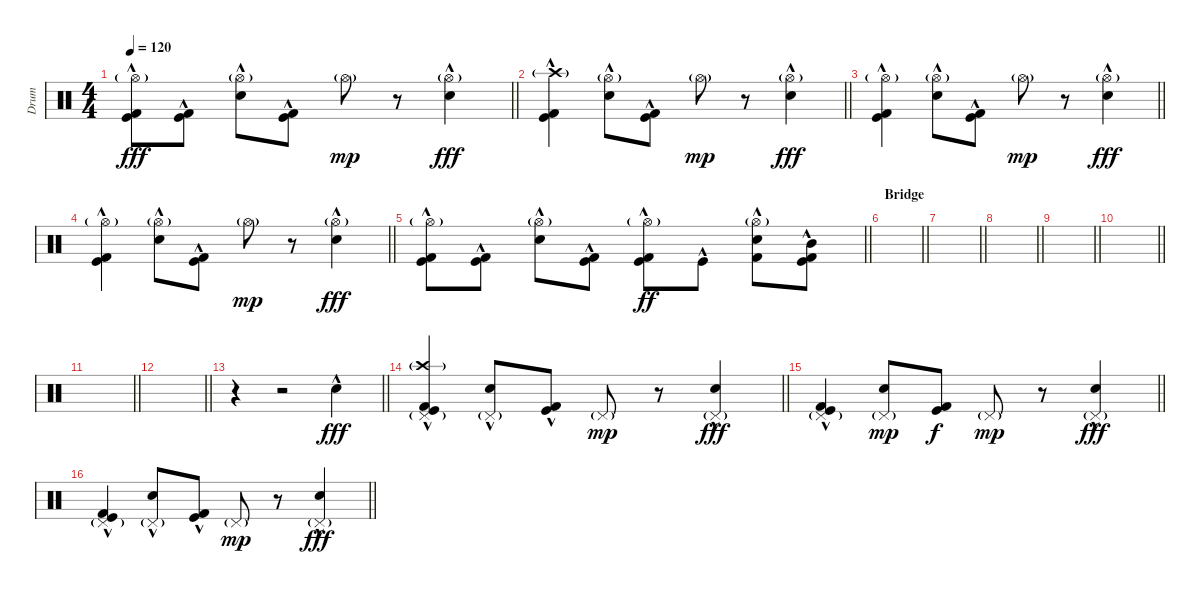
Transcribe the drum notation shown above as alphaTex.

\track ("Drum" "Drum") {instrument percussion}
\staff {score}
\articulation defaults
\ts (4 4)
\tempo 120
\clef neutral
\barLineRight lightlight
\ks c
("Hi-Hat (open)"{g} "Kick (hit) 2"{hac} "Kick (hit)"{hac}).8{dy fff} ("Kick (hit) 2"{hac} "Kick (hit)"{hac}).8 ("Hi-Hat (open)"{g} "Snare (hit) 2"{hac}).8 ("Kick (hit) 2"{hac} "Kick (hit)"{hac}).8 "Hi-Hat (open)"{g}.8{dy mp} r.8 ("Hi-Hat (open)"{g} "Snare (hit) 2"{hac}).4{dy fff} |
\barLineRight lightlight
("Crash high (hit)"{g} "Kick (hit) 2"{hac} "Kick (hit)"{hac}).4 ("Hi-Hat (open)"{g} "Snare (hit) 2"{hac}).8 ("Kick (hit) 2"{hac} "Kick (hit)"{hac}).8 "Hi-Hat (open)"{g}.8{dy mp} r.8 ("Hi-Hat (open)"{g} "Snare (hit) 2"{hac}).4{dy fff} |
\barLineRight lightlight
("Hi-Hat (open)"{g} "Kick (hit) 2"{hac} "Kick (hit)"{hac}).4 ("Hi-Hat (open)"{g} "Snare (hit) 2"{hac}).8 ("Kick (hit) 2"{hac} "Kick (hit)"{hac}).8 "Hi-Hat (open)"{g}.8{dy mp} r.8 ("Hi-Hat (open)"{g} "Snare (hit) 2"{hac}).4{dy fff} |
\barLineRight lightlight
("Hi-Hat (open)"{g} "Kick (hit) 2"{hac} "Kick (hit)"{hac}).4 ("Hi-Hat (open)"{g} "Snare (hit) 2"{hac}).8 ("Kick (hit) 2"{hac} "Kick (hit)"{hac}).8 "Hi-Hat (open)"{g}.8{dy mp} r.8 ("Hi-Hat (open)"{g} "Snare (hit) 2"{hac}).4{dy fff} |
\barLineRight lightlight
("Hi-Hat (open)"{g} "Kick (hit) 2"{hac} "Kick (hit)"{hac}).8 ("Kick (hit) 2"{hac} "Kick (hit)"{hac}).8 ("Hi-Hat (open)"{g} "Snare (hit) 2"{hac}).8 ("Kick (hit) 2"{hac} "Kick (hit)"{hac}).8 ("Hi-Hat (open)"{g} "Kick (hit) 2"{hac} "Kick (hit)"{hac}).8{dy ff} "Kick (hit)"{hac}.8 ("Hi-Hat (open)"{g} "Snare (hit) 2"{hac} "Kick (hit) 2"{hac}).8 ("Mid Tom (hit)"{hac} "Kick (hit) 2"{hac} "Kick (hit)"{hac}).8 |
\section ("" "Bridge")
\barLineRight lightlight
|
\barLineRight lightlight
|
\barLineRight lightlight
|
\barLineRight lightlight
|
\barLineRight lightlight
|
\barLineRight lightlight
|
\barLineRight lightlight
|
\barLineRight lightlight
r.4 r.2 "Snare (hit) 2"{hac}.4{dy fff} |
\barLineRight lightlight
("Pedal Hi-Hat (hit)"{g} "Crash high (hit)"{g} "Kick (hit) 2"{hac} "Kick (hit)"{hac}).4 ("Pedal Hi-Hat (hit)"{g} "Snare (hit) 2"{hac}).8 ("Kick (hit) 2"{hac} "Kick (hit)"{hac}).8 "Pedal Hi-Hat (hit)"{g}.8{dy mp} r.8 ("Pedal Hi-Hat (hit)"{g} "Snare (hit) 2"{hac}).4{dy fff} |
\barLineRight lightlight
("Pedal Hi-Hat (hit)"{g} "Kick (hit) 2"{hac} "Kick (hit)"{hac}).4 ("Pedal Hi-Hat (hit)"{g} "Snare (hit) 2").8{dy mp} ("Kick (hit) 2" "Kick (hit)").8{dy f} "Pedal Hi-Hat (hit)"{g}.8{dy mp} r.8 ("Pedal Hi-Hat (hit)"{g} "Snare (hit) 2"{hac}).4{dy fff} |
\barLineRight lightlight
("Pedal Hi-Hat (hit)"{g} "Kick (hit) 2"{hac} "Kick (hit)"{hac}).4 ("Pedal Hi-Hat (hit)"{g} "Snare (hit) 2"{hac}).8 ("Kick (hit) 2"{hac} "Kick (hit)"{hac}).8 "Pedal Hi-Hat (hit)"{g}.8{dy mp} r.8 ("Pedal Hi-Hat (hit)"{g} "Snare (hit) 2"{hac}).4{dy fff}
